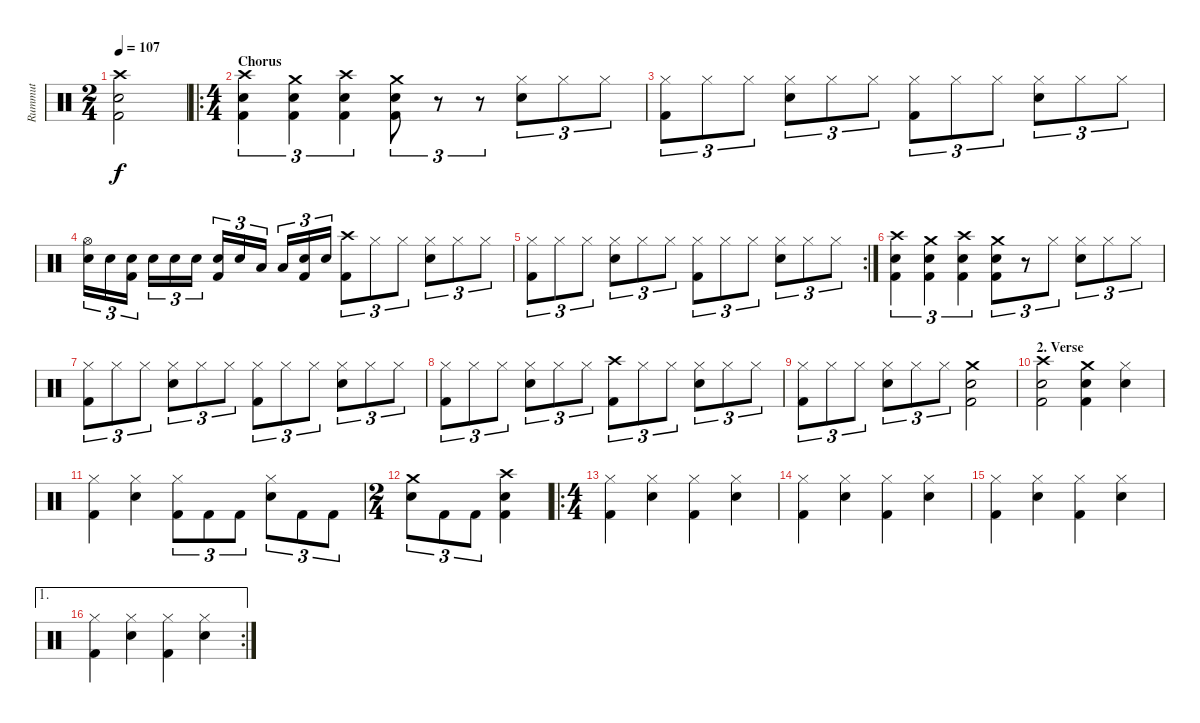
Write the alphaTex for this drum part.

\track ("Rummut" "Rummut") {instrument percussion}
\staff {score}
\articulation defaults
\ts (2 4)
\tempo 107
\clef neutral
\ks c
("Crash high (hit)" "Snare (hit) 2" "Kick (hit) 2").2{dy f} |
\ro
\ts (4 4)
\section ("" "Chorus")
("Crash high (hit)" "Snare (hit) 2" "Kick (hit) 2").4{tu (3 2)} ("Crash medium (hit)" "Snare (hit) 2" "Kick (hit) 2").4{tu (3 2)} ("Crash high (hit)" "Snare (hit) 2" "Kick (hit) 2").4{tu (3 2)} ("Crash medium (hit)" "Snare (hit) 2" "Kick (hit) 2").8{tu (3 2)} r.8{tu (3 2)} r.8{tu (3 2)} ("Hi-Hat (closed)" "Snare (hit) 2").8{tu (3 2)} "Hi-Hat (closed)".8{tu (3 2)} "Hi-Hat (closed)".8{tu (3 2)} |
("Hi-Hat (closed)" "Kick (hit) 2").8{tu (3 2)} "Hi-Hat (closed)".8{tu (3 2)} "Hi-Hat (closed)".8{tu (3 2)} ("Hi-Hat (closed)" "Snare (hit) 2").8{tu (3 2)} "Hi-Hat (closed)".8{tu (3 2)} "Hi-Hat (closed)".8{tu (3 2)} ("Hi-Hat (closed)" "Kick (hit) 2").8{tu (3 2)} "Hi-Hat (closed)".8{tu (3 2)} "Hi-Hat (closed)".8{tu (3 2)} ("Hi-Hat (closed)" "Snare (hit) 2").8{tu (3 2)} "Hi-Hat (closed)".8{tu (3 2)} "Hi-Hat (closed)".8{tu (3 2)} |
("Hi-Hat (open)" "Snare (hit) 2").16{tu (3 2)} "Snare (hit)".16{tu (3 2)} ("Snare (hit)" "Kick (hit) 2").16{tu (3 2)} "Snare (hit)".16{tu (3 2)} "Snare (hit) 2".16{tu (3 2)} "Snare (hit)".16{tu (3 2)} ("Snare (hit)" "Kick (hit) 2").16{tu (3 2)} "Snare (hit)".16{tu (3 2)} "Low Tom (hit)".16{tu (3 2)} "Low Tom (hit)".16{tu (3 2)} ("Snare (hit)" "Kick (hit) 2").16{tu (3 2)} "Snare (hit)".16{tu (3 2)} ("Crash high (hit)" "Kick (hit) 2").8{tu (3 2)} "Hi-Hat (closed)".8{tu (3 2)} "Hi-Hat (closed)".8{tu (3 2)} ("Hi-Hat (closed)" "Snare (hit) 2").8{tu (3 2)} "Hi-Hat (closed)".8{tu (3 2)} "Hi-Hat (closed)".8{tu (3 2)} |
\rc 2
("Hi-Hat (closed)" "Kick (hit) 2").8{tu (3 2)} "Hi-Hat (closed)".8{tu (3 2)} "Hi-Hat (closed)".8{tu (3 2)} ("Hi-Hat (closed)" "Snare (hit) 2").8{tu (3 2)} "Hi-Hat (closed)".8{tu (3 2)} "Hi-Hat (closed)".8{tu (3 2)} ("Hi-Hat (closed)" "Kick (hit) 2").8{tu (3 2)} "Hi-Hat (closed)".8{tu (3 2)} "Hi-Hat (closed)".8{tu (3 2)} ("Hi-Hat (closed)" "Snare (hit) 2").8{tu (3 2)} "Hi-Hat (closed)".8{tu (3 2)} "Hi-Hat (closed)".8{tu (3 2)} |
("Crash high (hit)" "Snare (hit) 2" "Kick (hit) 2").4{tu (3 2)} ("Crash medium (hit)" "Snare (hit) 2" "Kick (hit) 2").4{tu (3 2)} ("Crash high (hit)" "Snare (hit) 2" "Kick (hit) 2").4{tu (3 2)} ("Crash medium (hit)" "Snare (hit) 2" "Kick (hit) 2").8{tu (3 2)} r.8{tu (3 2)} "Hi-Hat (closed)".8{tu (3 2)} ("Hi-Hat (closed)" "Snare (hit) 2").8{tu (3 2)} "Hi-Hat (closed)".8{tu (3 2)} "Hi-Hat (closed)".8{tu (3 2)} |
("Hi-Hat (closed)" "Kick (hit) 2").8{tu (3 2)} "Hi-Hat (closed)".8{tu (3 2)} "Hi-Hat (closed)".8{tu (3 2)} ("Hi-Hat (closed)" "Snare (hit) 2").8{tu (3 2)} "Hi-Hat (closed)".8{tu (3 2)} "Hi-Hat (closed)".8{tu (3 2)} ("Hi-Hat (closed)" "Kick (hit) 2").8{tu (3 2)} "Hi-Hat (closed)".8{tu (3 2)} "Hi-Hat (closed)".8{tu (3 2)} ("Hi-Hat (closed)" "Snare (hit) 2").8{tu (3 2)} "Hi-Hat (closed)".8{tu (3 2)} "Hi-Hat (closed)".8{tu (3 2)} |
("Hi-Hat (closed)" "Kick (hit) 2").8{tu (3 2)} "Hi-Hat (closed)".8{tu (3 2)} "Hi-Hat (closed)".8{tu (3 2)} ("Hi-Hat (closed)" "Snare (hit) 2").8{tu (3 2)} "Hi-Hat (closed)".8{tu (3 2)} "Hi-Hat (closed)".8{tu (3 2)} ("Crash high (hit)" "Kick (hit) 2").8{tu (3 2)} "Hi-Hat (closed)".8{tu (3 2)} "Hi-Hat (closed)".8{tu (3 2)} ("Hi-Hat (closed)" "Snare (hit) 2").8{tu (3 2)} "Hi-Hat (closed)".8{tu (3 2)} "Hi-Hat (closed)".8{tu (3 2)} |
("Hi-Hat (closed)" "Kick (hit) 2").8{tu (3 2)} "Hi-Hat (closed)".8{tu (3 2)} "Hi-Hat (closed)".8{tu (3 2)} ("Hi-Hat (closed)" "Snare (hit) 2").8{tu (3 2)} "Hi-Hat (closed)".8{tu (3 2)} "Hi-Hat (closed)".8{tu (3 2)} ("Crash medium (hit)" "Snare (hit) 2" "Kick (hit) 2").2 |
\section ("" "2. Verse")
("Crash high (hit)" "Snare (hit) 2" "Kick (hit) 2").2 ("Crash medium (hit)" "Snare (hit) 2" "Kick (hit) 2").4 ("Hi-Hat (closed)" "Snare (hit) 2").4 |
("Hi-Hat (closed)" "Kick (hit) 2").4 ("Hi-Hat (closed)" "Snare (hit) 2").4 ("Hi-Hat (closed)" "Kick (hit) 2").8{tu (3 2)} "Kick (hit) 2".8{tu (3 2)} "Kick (hit) 2".8{tu (3 2)} ("Hi-Hat (closed)" "Snare (hit) 2").8{tu (3 2)} "Kick (hit) 2".8{tu (3 2)} "Kick (hit) 2".8{tu (3 2)} |
\ts (2 4)
("Crash medium (hit)" "Snare (hit) 2").8{tu (3 2)} "Kick (hit) 2".8{tu (3 2)} "Kick (hit) 2".8{tu (3 2)} ("Crash high (hit)" "Snare (hit) 2" "Kick (hit) 2").4 |
\ro
\ts (4 4)
("Hi-Hat (closed)" "Kick (hit) 2").4 ("Hi-Hat (closed)" "Snare (hit) 2").4 ("Hi-Hat (closed)" "Kick (hit) 2").4 ("Hi-Hat (closed)" "Snare (hit) 2").4 |
("Hi-Hat (closed)" "Kick (hit) 2").4 ("Hi-Hat (closed)" "Snare (hit) 2").4 ("Hi-Hat (closed)" "Kick (hit) 2").4 ("Hi-Hat (closed)" "Snare (hit) 2").4 |
("Hi-Hat (closed)" "Kick (hit) 2").4 ("Hi-Hat (closed)" "Snare (hit) 2").4 ("Hi-Hat (closed)" "Kick (hit) 2").4 ("Hi-Hat (closed)" "Snare (hit) 2").4 |
\ae 1
\rc 2
("Hi-Hat (closed)" "Kick (hit) 2").4 ("Hi-Hat (closed)" "Snare (hit) 2").4 ("Hi-Hat (closed)" "Kick (hit) 2").4 ("Hi-Hat (closed)" "Snare (hit) 2").4
